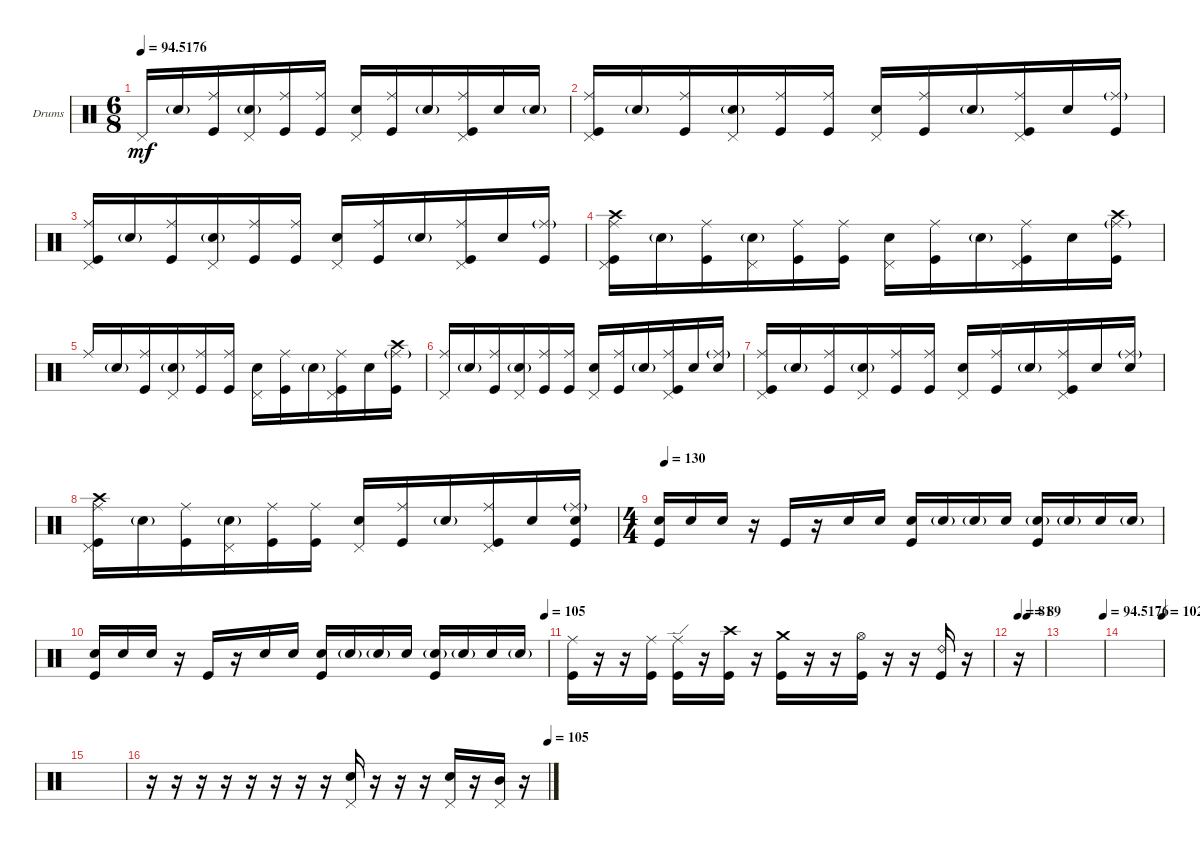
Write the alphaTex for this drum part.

\defaultSystemsLayout 4
\bracketExtendMode groupsimilarinstruments
\firstSystemTrackNameOrientation horizontal
\otherSystemsTrackNameOrientation horizontal
\track ("Godd" "Drums") {instrument percussion}
\staff {score}
\articulation defaults
\ts (6 8)
\tempo
94.5176
\accidentals auto
\clef neutral
\ottava regular
\simile none
\scale
0.333333
\ks c "Pedal Hi-Hat (hit)".16{dy mf} "Snare (hit) 2"{g}.16
("Kick (hit)" "Ride (middle)").16 ("Snare (hit) 2"{g} "Pedal Hi-Hat (hit)").16 ("Kick (hit)" "Ride (middle)").16 ("Kick (hit)" "Ride (middle)").16 ("Snare (hit) 2" "Pedal Hi-Hat (hit)").16 ("Kick (hit)" "Ride (middle)").16 "Snare (hit) 2"{g}.16 ("Kick (hit)" "Ride (middle)" "Pedal Hi-Hat (hit)").16 "Snare (hit) 2".16 "Snare (hit) 2"{g}.16 |
\scale
0.333333 ("Pedal Hi-Hat (hit)" "Kick (hit)" "Ride (middle)").16 "Snare (hit) 2"{g}.16 ("Kick (hit)" "Ride (middle)").16 ("Snare (hit) 2"{g} "Pedal Hi-Hat (hit)").16 ("Kick (hit)" "Ride (middle)").16 ("Kick (hit)" "Ride (middle)").16 ("Snare (hit) 2" "Pedal Hi-Hat (hit)").16 ("Kick (hit)" "Ride (middle)").16 "Snare (hit) 2"{g}.16 ("Kick (hit)" "Ride (middle)" "Pedal Hi-Hat (hit)").16 "Snare (hit) 2".16 ("Kick (hit)" "Ride (middle)"{g}).16 |
\scale
0.333333 ("Pedal Hi-Hat (hit)" "Kick (hit)" "Ride (middle)").16 "Snare (hit) 2"{g}.16 ("Kick (hit)" "Ride (middle)").16 ("Snare (hit) 2"{g} "Pedal Hi-Hat (hit)").16 ("Kick (hit)" "Ride (middle)").16 ("Kick (hit)" "Ride (middle)").16 ("Snare (hit) 2" "Pedal Hi-Hat (hit)").16 ("Kick (hit)" "Ride (middle)").16 "Snare (hit) 2"{g}.16 ("Kick (hit)" "Ride (middle)" "Pedal Hi-Hat (hit)").16 "Snare (hit) 2".16 ("Kick (hit)" "Ride (middle)"{g}).16 |
\scale
0.333333 ("Pedal Hi-Hat (hit)" "Kick (hit)" "Ride (middle)" "Crash high (hit)").16 "Snare (hit) 2"{g}.16 ("Kick (hit)" "Ride (middle)").16 ("Snare (hit) 2"{g} "Pedal Hi-Hat (hit)").16 ("Kick (hit)" "Ride (middle)").16 ("Kick (hit)" "Ride (middle)").16 ("Snare (hit) 2" "Pedal Hi-Hat (hit)").16 ("Kick (hit)" "Ride (middle)").16 "Snare (hit) 2"{g}.16 ("Kick (hit)" "Ride (middle)" "Pedal Hi-Hat (hit)").16 "Snare (hit) 2".16 ("Kick (hit)" "Ride (middle)"{g} "Crash high (hit)").16 |
\scale
0.333333 "Ride (middle)".16 "Snare (hit) 2"{g}.16 ("Kick (hit)" "Ride (middle)").16 ("Snare (hit) 2"{g} "Pedal Hi-Hat (hit)").16 ("Kick (hit)" "Ride (middle)").16 ("Kick (hit)" "Ride (middle)").16 ("Snare (hit) 2" "Pedal Hi-Hat (hit)").16 ("Kick (hit)" "Ride (middle)").16 "Snare (hit) 2"{g}.16 ("Kick (hit)" "Ride (middle)" "Pedal Hi-Hat (hit)").16 "Snare (hit) 2".16 ("Kick (hit)" "Ride (middle)"{g} "Crash high (hit)").16 |
\scale
0.333333 ("Pedal Hi-Hat (hit)" "Ride (middle)").16 "Snare (hit) 2"{g}.16 ("Kick (hit)" "Ride (middle)").16 ("Snare (hit) 2"{g} "Pedal Hi-Hat (hit)").16 ("Kick (hit)" "Ride (middle)").16 ("Kick (hit)" "Ride (middle)").16 ("Snare (hit) 2" "Pedal Hi-Hat (hit)").16 ("Kick (hit)" "Ride (middle)").16 "Snare (hit) 2"{g}.16 ("Kick (hit)" "Ride (middle)" "Pedal Hi-Hat (hit)").16 "Snare (hit) 2".16 ("Ride (middle)"{g} "Snare (hit) 2").16 |
\scale
0.263889 ("Pedal Hi-Hat (hit)" "Kick (hit)" "Ride (middle)").16 "Snare (hit) 2"{g}.16 ("Kick (hit)" "Ride (middle)").16 ("Snare (hit) 2"{g} "Pedal Hi-Hat (hit)").16 ("Kick (hit)" "Ride (middle)").16 ("Kick (hit)" "Ride (middle)").16 ("Snare (hit) 2" "Pedal Hi-Hat (hit)").16 ("Kick (hit)" "Ride (middle)").16 "Snare (hit) 2"{g}.16 ("Kick (hit)" "Ride (middle)" "Pedal Hi-Hat (hit)").16 "Snare (hit) 2".16 ("Ride (middle)"{g} "Snare (hit) 2").16 |
\scale
0.263889 ("Pedal Hi-Hat (hit)" "Kick (hit)" "Ride (middle)" "Crash high (hit)").16 "Snare (hit) 2"{g}.16 ("Kick (hit)" "Ride (middle)").16 ("Snare (hit) 2"{g} "Pedal Hi-Hat (hit)").16 ("Kick (hit)" "Ride (middle)").16 ("Kick (hit)" "Ride (middle)").16 ("Snare (hit) 2" "Pedal Hi-Hat (hit)").16 ("Kick (hit)" "Ride (middle)").16 "Snare (hit) 2"{g}.16 ("Kick (hit)" "Ride (middle)" "Pedal Hi-Hat (hit)").16 "Snare (hit) 2".16 ("Kick (hit)" "Ride (middle)"{g} "Snare (hit) 2").16 |
\ts (4 4)
\tempo (130 0.0125)
\scale
0.472222 ("Kick (hit)" "Snare (hit) 2").16 "Snare (hit) 2".16 "Snare (hit) 2".16 r.16 "Kick (hit)".16 r.16 "Snare (hit) 2".16 "Snare (hit) 2".16 ("Snare (hit) 2" "Kick (hit)").16 "Snare (hit) 2"{g}.16 "Snare (hit) 2"{g}.16 "Snare (hit) 2".16 ("Snare (hit) 2"{g} "Kick (hit)").16 "Snare (hit) 2"{g}.16 "Snare (hit) 2".16 "Snare (hit) 2"{g}.16 |
\tempo (105 0.99375)
\scale
0.333333 ("Kick (hit)" "Snare (hit) 2").16 "Snare (hit) 2".16 "Snare (hit) 2".16 r.16 "Kick (hit)".16 r.16 "Snare (hit) 2".16 "Snare (hit) 2".16 ("Snare (hit) 2" "Kick (hit)").16 "Snare (hit) 2"{g}.16 "Snare (hit) 2"{g}.16 "Snare (hit) 2".16 ("Snare (hit) 2"{g} "Kick (hit)").16 "Snare (hit) 2"{g}.16 "Snare (hit) 2".16 "Snare (hit) 2"{g}.16 |
\scale
0.333333 ("Kick (hit)" "Ride (middle)").16 r.16 r.16 ("Kick (hit)" "Ride (middle)").16 ("Kick (hit)" "Ride (edge)").16 r.16 ("Crash high (hit)" "Kick (hit)").16 r.16 ("Crash medium (hit)" "Kick (hit)").16 r.16 r.16 ("Kick (hit)" "Hi-Hat (open)").16 r.16 r.16 ("Kick (hit)" "Ride (bell) 2").16 r.16 |
\tempo 81
\tempo (89 0.34375)
\scale
0.333333 r.16 |
\tempo (94.5176 1)
\scale
0.333333 |
\tempo (102.929 1)
\scale
0.333333 |
\scale
0.333333 |
\tempo (105 1)
r.16 r.16 r.16 r.16 r.16 r.16 r.16 r.16 ("Snare (hit) 2" "Pedal Hi-Hat (hit)").16 r.16 r.16 r.16 ("Snare (hit) 2" "Pedal Hi-Hat (hit)").16 r.16 ("Mid Tom (hit)" "Pedal Hi-Hat (hit)").16 r.16
